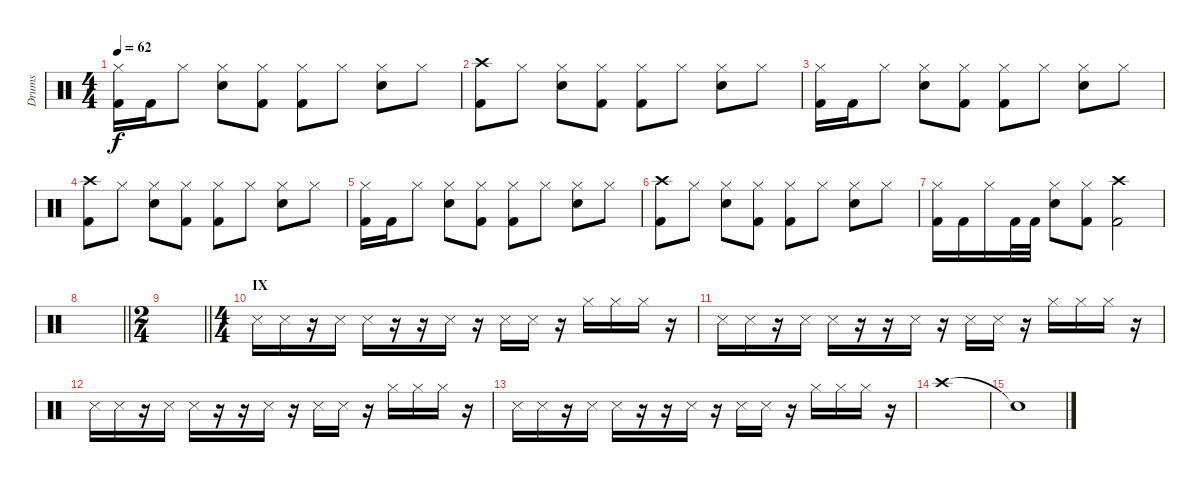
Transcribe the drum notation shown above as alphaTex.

\track ("Drums" "Drums") {instrument percussion}
\staff {score}
\articulation defaults
\ts (4 4)
\tempo 62
\clef neutral
\ks c
("Hi-Hat (closed)" "Kick (hit) 2").16{dy f} "Kick (hit) 2".16 "Hi-Hat (closed)".8 ("Hi-Hat (closed)" "Snare (hit) 2").8 ("Hi-Hat (closed)" "Kick (hit) 2").8 ("Hi-Hat (closed)" "Kick (hit) 2").8 "Hi-Hat (closed)".8 ("Hi-Hat (closed)" "Snare (hit) 2").8 "Hi-Hat (closed)".8 |
("Crash high (hit)" "Kick (hit) 2").8 "Hi-Hat (closed)".8 ("Hi-Hat (closed)" "Snare (hit) 2").8 ("Hi-Hat (closed)" "Kick (hit) 2").8 ("Hi-Hat (closed)" "Kick (hit) 2").8 "Hi-Hat (closed)".8 ("Hi-Hat (closed)" "Snare (hit) 2").8 "Hi-Hat (closed)".8 |
("Hi-Hat (closed)" "Kick (hit) 2").16 "Kick (hit) 2".16 "Hi-Hat (closed)".8 ("Hi-Hat (closed)" "Snare (hit) 2").8 ("Hi-Hat (closed)" "Kick (hit) 2").8 ("Hi-Hat (closed)" "Kick (hit) 2").8 "Hi-Hat (closed)".8 ("Hi-Hat (closed)" "Snare (hit) 2").8 "Hi-Hat (closed)".8 |
("Crash high (hit)" "Kick (hit) 2").8 "Hi-Hat (closed)".8 ("Hi-Hat (closed)" "Snare (hit) 2").8 ("Hi-Hat (closed)" "Kick (hit) 2").8 ("Hi-Hat (closed)" "Kick (hit) 2").8 "Hi-Hat (closed)".8 ("Hi-Hat (closed)" "Snare (hit) 2").8 "Hi-Hat (closed)".8 |
("Hi-Hat (closed)" "Kick (hit) 2").16 "Kick (hit) 2".16 "Hi-Hat (closed)".8 ("Hi-Hat (closed)" "Snare (hit) 2").8 ("Hi-Hat (closed)" "Kick (hit) 2").8 ("Hi-Hat (closed)" "Kick (hit) 2").8 "Hi-Hat (closed)".8 ("Hi-Hat (closed)" "Snare (hit) 2").8 "Hi-Hat (closed)".8 |
("Crash high (hit)" "Kick (hit) 2").8 "Hi-Hat (closed)".8 ("Hi-Hat (closed)" "Snare (hit) 2").8 ("Hi-Hat (closed)" "Kick (hit) 2").8 ("Hi-Hat (closed)" "Kick (hit) 2").8 "Hi-Hat (closed)".8 ("Hi-Hat (closed)" "Snare (hit) 2").8 "Hi-Hat (closed)".8 |
("Hi-Hat (closed)" "Kick (hit) 2").16 "Kick (hit) 2".16 "Hi-Hat (closed)".16 "Kick (hit) 2".32 "Kick (hit) 2".32 ("Hi-Hat (closed)" "Snare (hit) 2").8 ("Hi-Hat (closed)" "Kick (hit) 2").8 ("Crash high (hit)" "Kick (hit) 2").2 |
\barLineRight lightlight
|
\ts (2 4)
\barLineRight lightlight
|
\ts (4 4)
\section ("" "IX")
"Snare (side stick) 3".16 "Snare (side stick) 3".16 r.16 "Snare (side stick) 3".16 "Snare (side stick) 3".16 r.16 r.16 "Snare (side stick) 3".16 r.16 "Snare (side stick) 3".16 "Snare (side stick) 3".16 r.16 "Hi-Hat (closed)".16 "Hi-Hat (closed)".16 "Hi-Hat (closed)".16 r.16 |
"Snare (side stick) 3".16 "Snare (side stick) 3".16 r.16 "Snare (side stick) 3".16 "Snare (side stick) 3".16 r.16 r.16 "Snare (side stick) 3".16 r.16 "Snare (side stick) 3".16 "Snare (side stick) 3".16 r.16 "Hi-Hat (closed)".16 "Hi-Hat (closed)".16 "Hi-Hat (closed)".16 r.16 |
"Snare (side stick) 3".16 "Snare (side stick) 3".16 r.16 "Snare (side stick) 3".16 "Snare (side stick) 3".16 r.16 r.16 "Snare (side stick) 3".16 r.16 "Snare (side stick) 3".16 "Snare (side stick) 3".16 r.16 "Hi-Hat (closed)".16 "Hi-Hat (closed)".16 "Hi-Hat (closed)".16 r.16 |
"Snare (side stick) 3".16 "Snare (side stick) 3".16 r.16 "Snare (side stick) 3".16 "Snare (side stick) 3".16 r.16 r.16 "Snare (side stick) 3".16 r.16 "Snare (side stick) 3".16 "Snare (side stick) 3".16 r.16 "Hi-Hat (closed)".16 "Hi-Hat (closed)".16 "Hi-Hat (closed)".16 r.16 |
"Crash high (hit)".1 |
"Snare (hit)"{t}.1
